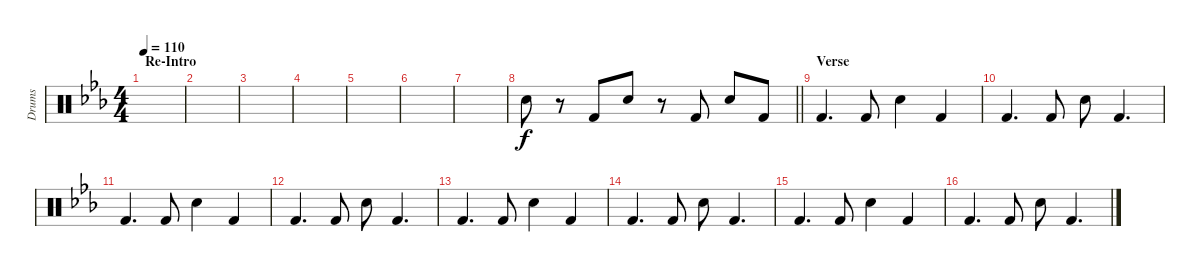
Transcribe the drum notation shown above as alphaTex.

\track ("Drums" "Drums") {instrument percussion}
\staff {score}
\articulation defaults
\ts (4 4)
\section ("" "Re-Intro")
\tempo 110
\clef neutral
\ks cminor
|
|
|
|
|
|
|
\barLineRight lightlight "Snare (hit) 2".8
r.8 "Kick (hit) 2".8 "Snare (hit) 2".8 r.8 "Kick (hit) 2".8 "Snare (hit) 2".8 "Kick (hit) 2".8 |
\section ("" "Verse")
"Kick (hit) 2".4{d} "Kick (hit) 2".8 "Snare (hit) 2".4 "Kick (hit) 2".4 |
"Kick (hit) 2".4{d} "Kick (hit) 2".8 "Snare (hit) 2".8 "Kick (hit) 2".4{d} |
"Kick (hit) 2".4{d} "Kick (hit) 2".8 "Snare (hit) 2".4 "Kick (hit) 2".4 |
"Kick (hit) 2".4{d} "Kick (hit) 2".8 "Snare (hit) 2".8 "Kick (hit) 2".4{d} |
"Kick (hit) 2".4{d} "Kick (hit) 2".8 "Snare (hit) 2".4 "Kick (hit) 2".4 |
"Kick (hit) 2".4{d} "Kick (hit) 2".8 "Snare (hit) 2".8 "Kick (hit) 2".4{d} |
"Kick (hit) 2".4{d} "Kick (hit) 2".8 "Snare (hit) 2".4 "Kick (hit) 2".4 |
"Kick (hit) 2".4{d} "Kick (hit) 2".8 "Snare (hit) 2".8 "Kick (hit) 2".4{d}
